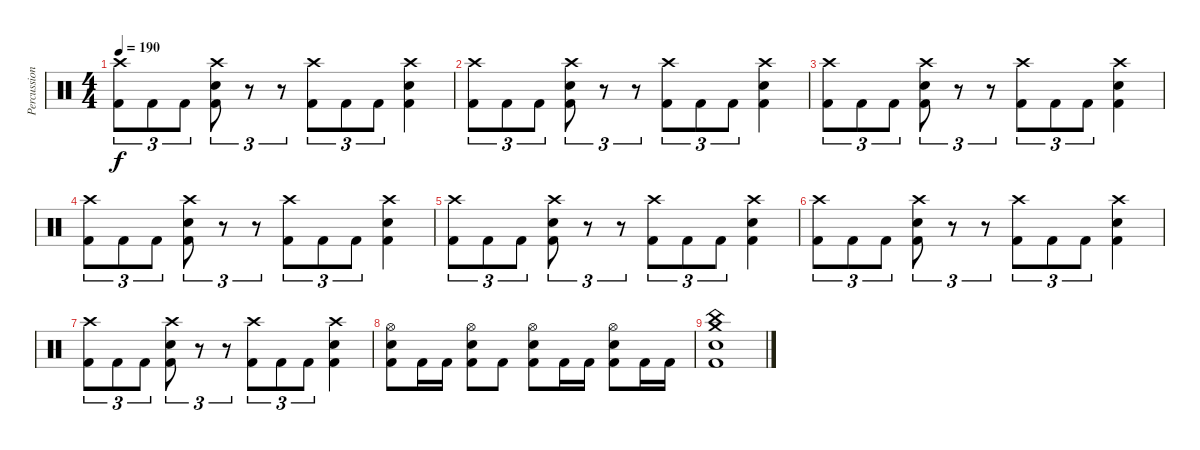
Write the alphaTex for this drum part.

\track ("Percussion" "Percussion") {instrument percussion}
\staff {score}
\articulation defaults
\ts (4 4)
\tempo 190
\clef neutral
\ks c
("Crash high (hit)" "Kick (hit) 2").8{tu (3 2) dy f} "Kick (hit) 2".8{tu (3 2)} "Kick (hit) 2".8{tu (3 2)} ("Crash high (hit)" "Electric Snare (hit)" "Kick (hit) 2").8{tu (3 2)} r.8{tu (3 2)} r.8{tu (3 2)} ("Crash high (hit)" "Kick (hit) 2").8{tu (3 2)} "Kick (hit) 2".8{tu (3 2)} "Kick (hit) 2".8{tu (3 2)} ("Crash high (hit)" "Electric Snare (hit)" "Kick (hit) 2").4 |
("Crash high (hit)" "Kick (hit) 2").8{tu (3 2)} "Kick (hit) 2".8{tu (3 2)} "Kick (hit) 2".8{tu (3 2)} ("Crash high (hit)" "Electric Snare (hit)" "Kick (hit) 2").8{tu (3 2)} r.8{tu (3 2)} r.8{tu (3 2)} ("Crash high (hit)" "Kick (hit) 2").8{tu (3 2)} "Kick (hit) 2".8{tu (3 2)} "Kick (hit) 2".8{tu (3 2)} ("Crash high (hit)" "Electric Snare (hit)" "Kick (hit) 2").4 |
("Crash high (hit)" "Kick (hit) 2").8{tu (3 2)} "Kick (hit) 2".8{tu (3 2)} "Kick (hit) 2".8{tu (3 2)} ("Crash high (hit)" "Electric Snare (hit)" "Kick (hit) 2").8{tu (3 2)} r.8{tu (3 2)} r.8{tu (3 2)} ("Crash high (hit)" "Kick (hit) 2").8{tu (3 2)} "Kick (hit) 2".8{tu (3 2)} "Kick (hit) 2".8{tu (3 2)} ("Crash high (hit)" "Electric Snare (hit)" "Kick (hit) 2").4 |
("Crash high (hit)" "Kick (hit) 2").8{tu (3 2)} "Kick (hit) 2".8{tu (3 2)} "Kick (hit) 2".8{tu (3 2)} ("Crash high (hit)" "Electric Snare (hit)" "Kick (hit) 2").8{tu (3 2)} r.8{tu (3 2)} r.8{tu (3 2)} ("Crash high (hit)" "Kick (hit) 2").8{tu (3 2)} "Kick (hit) 2".8{tu (3 2)} "Kick (hit) 2".8{tu (3 2)} ("Crash high (hit)" "Electric Snare (hit)" "Kick (hit) 2").4 |
("Crash high (hit)" "Kick (hit) 2").8{tu (3 2)} "Kick (hit) 2".8{tu (3 2)} "Kick (hit) 2".8{tu (3 2)} ("Crash high (hit)" "Electric Snare (hit)" "Kick (hit) 2").8{tu (3 2)} r.8{tu (3 2)} r.8{tu (3 2)} ("Crash high (hit)" "Kick (hit) 2").8{tu (3 2)} "Kick (hit) 2".8{tu (3 2)} "Kick (hit) 2".8{tu (3 2)} ("Crash high (hit)" "Electric Snare (hit)" "Kick (hit) 2").4 |
("Crash high (hit)" "Kick (hit) 2").8{tu (3 2)} "Kick (hit) 2".8{tu (3 2)} "Kick (hit) 2".8{tu (3 2)} ("Crash high (hit)" "Electric Snare (hit)" "Kick (hit) 2").8{tu (3 2)} r.8{tu (3 2)} r.8{tu (3 2)} ("Crash high (hit)" "Kick (hit) 2").8{tu (3 2)} "Kick (hit) 2".8{tu (3 2)} "Kick (hit) 2".8{tu (3 2)} ("Crash high (hit)" "Electric Snare (hit)" "Kick (hit) 2").4 |
("Crash high (hit)" "Kick (hit) 2").8{tu (3 2)} "Kick (hit) 2".8{tu (3 2)} "Kick (hit) 2".8{tu (3 2)} ("Crash high (hit)" "Electric Snare (hit)" "Kick (hit) 2").8{tu (3 2)} r.8{tu (3 2)} r.8{tu (3 2)} ("Crash high (hit)" "Kick (hit) 2").8{tu (3 2)} "Kick (hit) 2".8{tu (3 2)} "Kick (hit) 2".8{tu (3 2)} ("Crash high (hit)" "Electric Snare (hit)" "Kick (hit) 2").4 |
("Hi-Hat (open)" "Electric Snare (hit)" "Kick (hit) 2").8 "Kick (hit) 2".16 "Kick (hit) 2".16 ("Hi-Hat (open)" "Electric Snare (hit)" "Kick (hit) 2").8 "Kick (hit) 2".8 ("Hi-Hat (open)" "Electric Snare (hit)" "Kick (hit) 2").8 "Kick (hit) 2".16 "Kick (hit) 2".16 ("Hi-Hat (open)" "Electric Snare (hit)" "Kick (hit) 2").8 "Kick (hit) 2".16 "Kick (hit) 2".16 |
("China (hit)" "Crash medium (hit)" "Electric Snare (hit)" "Kick (hit) 2").1
